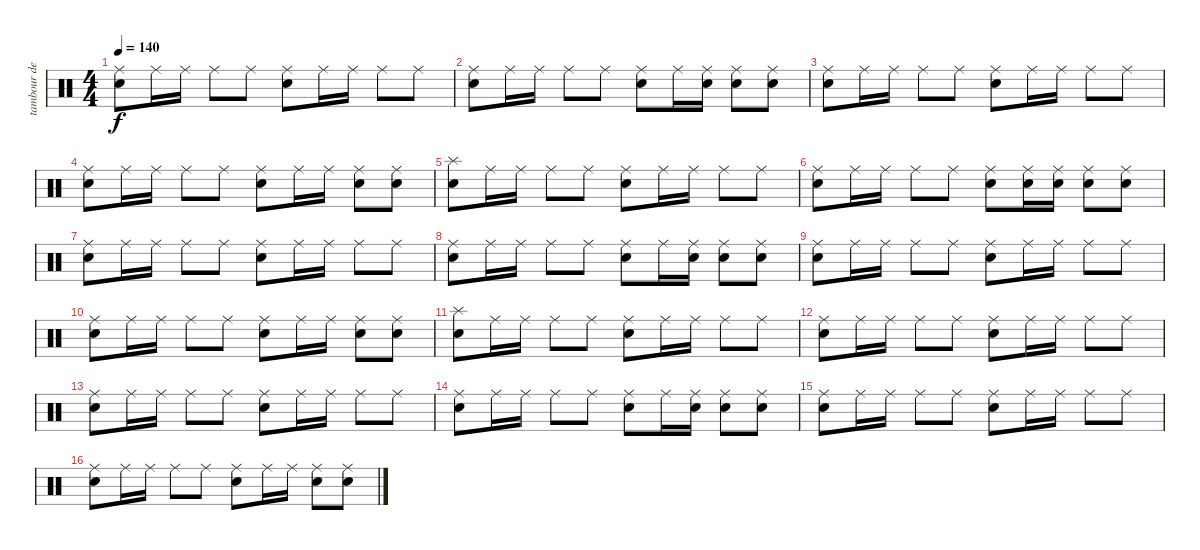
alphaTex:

\track ("tambour de guerre" "tambour de") {instrument percussion}
\staff {score}
\articulation defaults
\ts (4 4)
\tempo 140
\clef neutral
\ks c
("Snare (hit) 2" "Ride (middle)").8{dy f} "Ride (middle)".16 "Ride (middle)".16 "Ride (middle)".8 "Ride (middle)".8 ("Snare (hit) 2" "Ride (middle)").8 "Ride (middle)".16 "Ride (middle)".16 "Ride (middle)".8 "Ride (middle)".8 |
("Snare (hit) 2" "Ride (middle)").8 "Ride (middle)".16 "Ride (middle)".16 "Ride (middle)".8 "Ride (middle)".8 ("Snare (hit) 2" "Ride (middle)").8 "Ride (middle)".16 ("Snare (hit) 2" "Ride (middle)").16 ("Snare (hit) 2" "Ride (middle)").8 ("Snare (hit) 2" "Ride (middle)").8 |
("Snare (hit) 2" "Ride (middle)").8 "Ride (middle)".16 "Ride (middle)".16 "Ride (middle)".8 "Ride (middle)".8 ("Snare (hit) 2" "Ride (middle)").8 "Ride (middle)".16 "Ride (middle)".16 "Ride (middle)".8 "Ride (middle)".8 |
("Snare (hit) 2" "Ride (middle)").8 "Ride (middle)".16 "Ride (middle)".16 "Ride (middle)".8 "Ride (middle)".8 ("Snare (hit) 2" "Ride (middle)").8 "Ride (middle)".16 "Ride (middle)".16 ("Snare (hit) 2" "Ride (middle)").8 ("Snare (hit) 2" "Ride (middle)").8 |
("Snare (hit) 2" "Splash (hit)").8 "Ride (middle)".16 "Ride (middle)".16 "Ride (middle)".8 "Ride (middle)".8 ("Snare (hit) 2" "Ride (middle)").8 "Ride (middle)".16 "Ride (middle)".16 "Ride (middle)".8 "Ride (middle)".8 |
("Snare (hit) 2" "Ride (middle)").8 "Ride (middle)".16 "Ride (middle)".16 "Ride (middle)".8 "Ride (middle)".8 ("Snare (hit) 2" "Ride (middle)").8 ("Snare (hit) 2" "Ride (middle)").16 ("Snare (hit) 2" "Ride (middle)").16 ("Snare (hit) 2" "Ride (middle)").8 ("Snare (hit) 2" "Ride (middle)").8 |
("Snare (hit) 2" "Ride (middle)").8 "Ride (middle)".16 "Ride (middle)".16 "Ride (middle)".8 "Ride (middle)".8 ("Snare (hit) 2" "Ride (middle)").8 "Ride (middle)".16 "Ride (middle)".16 "Ride (middle)".8 "Ride (middle)".8 |
("Snare (hit) 2" "Ride (middle)").8 "Ride (middle)".16 "Ride (middle)".16 "Ride (middle)".8 "Ride (middle)".8 ("Snare (hit) 2" "Ride (middle)").8 "Ride (middle)".16 ("Snare (hit) 2" "Ride (middle)").16 ("Snare (hit) 2" "Ride (middle)").8 ("Snare (hit) 2" "Ride (middle)").8 |
("Snare (hit) 2" "Ride (middle)").8 "Ride (middle)".16 "Ride (middle)".16 "Ride (middle)".8 "Ride (middle)".8 ("Snare (hit) 2" "Ride (middle)").8 "Ride (middle)".16 "Ride (middle)".16 "Ride (middle)".8 "Ride (middle)".8 |
("Snare (hit) 2" "Ride (middle)").8 "Ride (middle)".16 "Ride (middle)".16 "Ride (middle)".8 "Ride (middle)".8 ("Snare (hit) 2" "Ride (middle)").8 "Ride (middle)".16 "Ride (middle)".16 ("Snare (hit) 2" "Ride (middle)").8 ("Snare (hit) 2" "Ride (middle)").8 |
("Snare (hit) 2" "Splash (hit)").8 "Ride (middle)".16 "Ride (middle)".16 "Ride (middle)".8 "Ride (middle)".8 ("Snare (hit) 2" "Ride (middle)").8 "Ride (middle)".16 "Ride (middle)".16 "Ride (middle)".8 "Ride (middle)".8 |
("Snare (hit) 2" "Ride (middle)").8 "Ride (middle)".16 "Ride (middle)".16 "Ride (middle)".8 "Ride (middle)".8 ("Snare (hit) 2" "Ride (middle)").8 "Ride (middle)".16 "Ride (middle)".16 "Ride (middle)".8 "Ride (middle)".8 |
("Snare (hit) 2" "Ride (middle)").8 "Ride (middle)".16 "Ride (middle)".16 "Ride (middle)".8 "Ride (middle)".8 ("Snare (hit) 2" "Ride (middle)").8 "Ride (middle)".16 "Ride (middle)".16 "Ride (middle)".8 "Ride (middle)".8 |
("Snare (hit) 2" "Ride (middle)").8 "Ride (middle)".16 "Ride (middle)".16 "Ride (middle)".8 "Ride (middle)".8 ("Snare (hit) 2" "Ride (middle)").8 "Ride (middle)".16 ("Snare (hit) 2" "Ride (middle)").16 ("Snare (hit) 2" "Ride (middle)").8 ("Snare (hit) 2" "Ride (middle)").8 |
("Snare (hit) 2" "Ride (middle)").8 "Ride (middle)".16 "Ride (middle)".16 "Ride (middle)".8 "Ride (middle)".8 ("Snare (hit) 2" "Ride (middle)").8 "Ride (middle)".16 "Ride (middle)".16 "Ride (middle)".8 "Ride (middle)".8 |
("Snare (hit) 2" "Ride (middle)").8 "Ride (middle)".16 "Ride (middle)".16 "Ride (middle)".8 "Ride (middle)".8 ("Snare (hit) 2" "Ride (middle)").8 "Ride (middle)".16 "Ride (middle)".16 ("Snare (hit) 2" "Ride (middle)").8 ("Snare (hit) 2" "Ride (middle)").8
